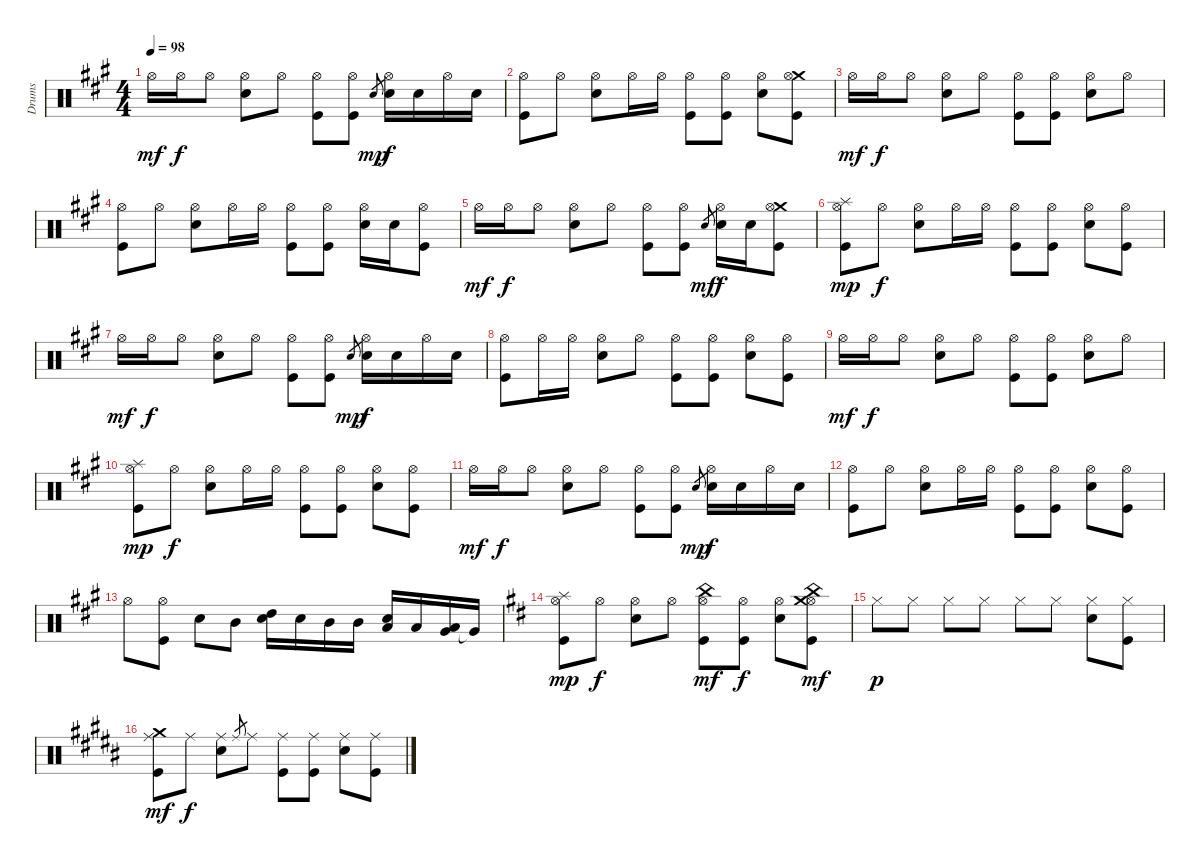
\track ("Drums" "Drums") {instrument percussion}
\staff {score}
\articulation defaults
\ts (4 4)
\tempo 98
\clef neutral
\ks f#minor "Hi-Hat (open)".16{dy mf} "Hi-Hat (open)".16{dy f} "Hi-Hat (open)".8
("Hi-Hat (open)" "Electric Snare (hit)").8 "Hi-Hat (open)".8 ("Hi-Hat (open)" "Kick (hit)").8 ("Hi-Hat (open)" "Kick (hit)").8 "Electric Snare (hit)".8{gr dy mp} ("Hi-Hat (open)" "Electric Snare (hit)").16{dy f} "Electric Snare (hit)".16 "Hi-Hat (open)".16 "Electric Snare (hit)".16 |
("Hi-Hat (open)" "Kick (hit)").8 "Hi-Hat (open)".8 ("Hi-Hat (open)" "Electric Snare (hit)").8 "Hi-Hat (open)".16 "Hi-Hat (open)".16 ("Hi-Hat (open)" "Kick (hit)").8 ("Hi-Hat (open)" "Kick (hit)").8 ("Hi-Hat (open)" "Electric Snare (hit)").8 ("Crash medium (hit)" "Hi-Hat (open)" "Kick (hit)").8 |
"Hi-Hat (open)".16{dy mf} "Hi-Hat (open)".16{dy f} "Hi-Hat (open)".8 ("Hi-Hat (open)" "Electric Snare (hit)").8 "Hi-Hat (open)".8 ("Hi-Hat (open)" "Kick (hit)").8 ("Hi-Hat (open)" "Kick (hit)").8 ("Hi-Hat (open)" "Electric Snare (hit)").8 "Hi-Hat (open)".8 |
("Hi-Hat (open)" "Kick (hit)").8 "Hi-Hat (open)".8 ("Hi-Hat (open)" "Electric Snare (hit)").8 "Hi-Hat (open)".16 "Hi-Hat (open)".16 ("Hi-Hat (open)" "Kick (hit)").8 ("Hi-Hat (open)" "Kick (hit)").8 ("Hi-Hat (open)" "Electric Snare (hit)").16 "Electric Snare (hit)".16 ("Hi-Hat (open)" "Kick (hit)").8 |
"Hi-Hat (open)".16{dy mf} "Hi-Hat (open)".16{dy f} "Hi-Hat (open)".8 ("Hi-Hat (open)" "Electric Snare (hit)").8 "Hi-Hat (open)".8 ("Hi-Hat (open)" "Kick (hit)").8 ("Hi-Hat (open)" "Kick (hit)").8 "Electric Snare (hit)".8{gr dy mf} ("Hi-Hat (open)" "Electric Snare (hit)").16{dy f} "Electric Snare (hit)".16 ("Crash medium (hit)" "Hi-Hat (open)" "Kick (hit)").8 |
("Splash (hit)" "Hi-Hat (open)" "Kick (hit)").8{dy mp} "Hi-Hat (open)".8{dy f} ("Hi-Hat (open)" "Electric Snare (hit)").8 "Hi-Hat (open)".16 "Hi-Hat (open)".16 ("Hi-Hat (open)" "Kick (hit)").8 ("Hi-Hat (open)" "Kick (hit)").8 ("Hi-Hat (open)" "Electric Snare (hit)").8 ("Hi-Hat (open)" "Kick (hit)").8 |
"Hi-Hat (open)".16{dy mf} "Hi-Hat (open)".16{dy f} "Hi-Hat (open)".8 ("Hi-Hat (open)" "Electric Snare (hit)").8 "Hi-Hat (open)".8 ("Hi-Hat (open)" "Kick (hit)").8 ("Hi-Hat (open)" "Kick (hit)").8 "Electric Snare (hit)".8{gr dy mp} ("Hi-Hat (open)" "Electric Snare (hit)").16{dy f} "Electric Snare (hit)".16 "Hi-Hat (open)".16 "Electric Snare (hit)".16 |
("Hi-Hat (open)" "Kick (hit)").8 "Hi-Hat (open)".16 "Hi-Hat (open)".16 ("Hi-Hat (open)" "Electric Snare (hit)").8 "Hi-Hat (open)".8 ("Hi-Hat (open)" "Kick (hit)").8 ("Hi-Hat (open)" "Kick (hit)").8 ("Hi-Hat (open)" "Electric Snare (hit)").8 ("Hi-Hat (open)" "Kick (hit)").8 |
"Hi-Hat (open)".16{dy mf} "Hi-Hat (open)".16{dy f} "Hi-Hat (open)".8 ("Hi-Hat (open)" "Electric Snare (hit)").8 "Hi-Hat (open)".8 ("Hi-Hat (open)" "Kick (hit)").8 ("Hi-Hat (open)" "Kick (hit)").8 ("Hi-Hat (open)" "Electric Snare (hit)").8 "Hi-Hat (open)".8 |
("Splash (hit)" "Hi-Hat (open)" "Kick (hit)").8{dy mp} "Hi-Hat (open)".8{dy f} ("Hi-Hat (open)" "Electric Snare (hit)").8 "Hi-Hat (open)".16 "Hi-Hat (open)".16 ("Hi-Hat (open)" "Kick (hit)").8 ("Hi-Hat (open)" "Kick (hit)").8 ("Hi-Hat (open)" "Electric Snare (hit)").8 ("Hi-Hat (open)" "Kick (hit)").8 |
"Hi-Hat (open)".16{dy mf} "Hi-Hat (open)".16{dy f} "Hi-Hat (open)".8 ("Hi-Hat (open)" "Electric Snare (hit)").8 "Hi-Hat (open)".8 ("Hi-Hat (open)" "Kick (hit)").8 ("Hi-Hat (open)" "Kick (hit)").8 "Electric Snare (hit)".8{gr dy mp} ("Hi-Hat (open)" "Electric Snare (hit)").16{dy f} "Electric Snare (hit)".16 "Hi-Hat (open)".16 "Electric Snare (hit)".16 |
("Hi-Hat (open)" "Kick (hit)").8 "Hi-Hat (open)".8 ("Hi-Hat (open)" "Electric Snare (hit)").8 "Hi-Hat (open)".16 "Hi-Hat (open)".16 ("Hi-Hat (open)" "Kick (hit)").8 ("Hi-Hat (open)" "Kick (hit)").8 ("Hi-Hat (open)" "Electric Snare (hit)").8 ("Hi-Hat (open)" "Kick (hit)").8 |
"Hi-Hat (open)".8 ("Hi-Hat (open)" "Kick (hit)").8 "Electric Snare (hit)".8 "Mid Tom (hit)".8 ("High Tom (hit)" "Electric Snare (hit)").16 "Electric Snare (hit)".16 "Mid Tom (hit)".16 "Mid Tom (hit)".16 ("Low Tom (hit)" "Electric Snare (hit)").16 "Low Tom (hit)".16 ("Low Tom (hit)" "Very Low Tom (hit)").16 "Very Low Tom (hit)"{t}.16 |
\ks bminor
("Splash (hit)" "Hi-Hat (open)" "Kick (hit)").8{dy mp} "Hi-Hat (open)".8{dy f} ("Hi-Hat (open)" "Electric Snare (hit)").8 "Hi-Hat (open)".8 ("China (hit)" "Hi-Hat (open)" "Kick (hit)").8{dy mf} ("Hi-Hat (open)" "Kick (hit)").8{dy f} ("Hi-Hat (open)" "Electric Snare (hit)").8 ("China (hit)" "Hi-Hat (open)" "Crash medium (hit)" "Kick (hit)").8{dy mf} |
"Hi-Hat (closed)".8{dy p} "Hi-Hat (closed)".8 "Hi-Hat (closed)".8 "Hi-Hat (closed)".8 "Hi-Hat (closed)".8 "Hi-Hat (closed)".8 ("Hi-Hat (closed)" "Electric Snare (hit)").8 ("Hi-Hat (closed)" "Kick (hit)").8 |
\ks g#minor
("Crash medium (hit)" "Ride (middle)" "Kick (hit)").8{dy mf} "Ride (middle)".8{dy f} ("Ride (middle)" "Electric Snare (hit)").8 "Ride (middle)".8{gr} "Ride (middle)".8 ("Ride (middle)" "Kick (hit)").8 ("Ride (middle)" "Kick (hit)").8 ("Ride (middle)" "Electric Snare (hit)").8 ("Ride (middle)" "Kick (hit)").8
